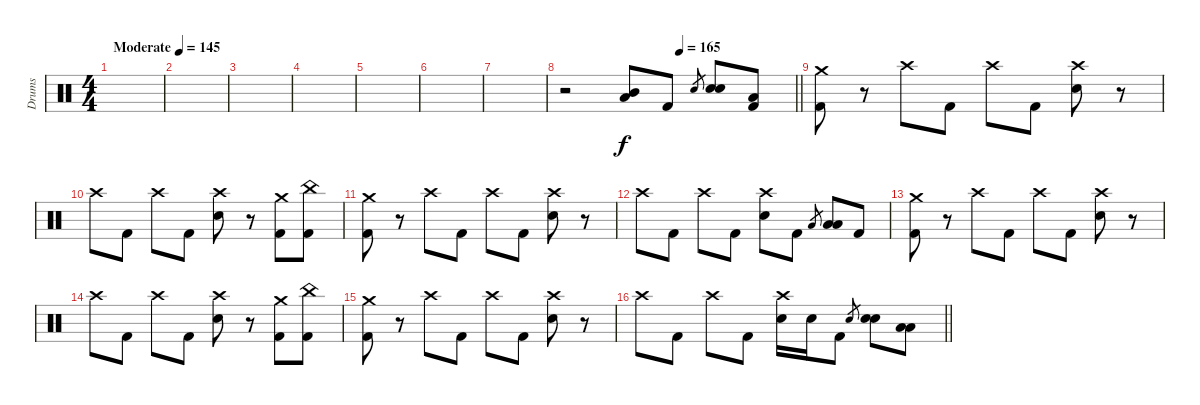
\track ("Drums" "Drums") {instrument percussion}
\staff {score}
\articulation defaults
\ts (4 4)
\tempo (145 "Moderate")
\clef neutral
\ks c
|
|
|
|
|
|
|
\tempo (165 0.5)
\barLineRight lightlight
r.2 ("Mid Tom (hit)" "Low Tom (hit)").8 "Kick (hit) 2".8 "Electric Snare (hit)".8{gr} ("Electric Snare (hit)" "Electric Snare (hit)").8 ("Low Floor Tom (hit)" "Kick (hit) 2").8 |
\section ("" "")
("Crash medium (hit)" "Kick (hit) 2").8 r.8 "Crash high (hit)".8 "Kick (hit) 2".8 "Crash high (hit)".8 "Kick (hit) 2".8 ("Crash high (hit)" "Electric Snare (hit)").8 r.8 |
"Crash high (hit)".8 "Kick (hit) 2".8 "Crash high (hit)".8 "Kick (hit) 2".8 ("Crash high (hit)" "Electric Snare (hit)").8 r.8 ("Crash medium (hit)" "Kick (hit) 2").8 ("China (hit)" "Kick (hit) 2").8 |
("Crash medium (hit)" "Kick (hit) 2").8 r.8 "Crash high (hit)".8 "Kick (hit) 2".8 "Crash high (hit)".8 "Kick (hit) 2".8 ("Crash high (hit)" "Electric Snare (hit)").8 r.8 |
"Crash high (hit)".8 "Kick (hit) 2".8 "Crash high (hit)".8 "Kick (hit) 2".8 ("Crash high (hit)" "Electric Snare (hit)").8 "Kick (hit) 2".8 "Low Tom (hit)".8{gr} ("Low Tom (hit)" "Low Floor Tom (hit)").8 "Kick (hit) 2".8 |
("Crash medium (hit)" "Kick (hit) 2").8 r.8 "Crash high (hit)".8 "Kick (hit) 2".8 "Crash high (hit)".8 "Kick (hit) 2".8 ("Crash high (hit)" "Electric Snare (hit)").8 r.8 |
"Crash high (hit)".8 "Kick (hit) 2".8 "Crash high (hit)".8 "Kick (hit) 2".8 ("Crash high (hit)" "Electric Snare (hit)").8 r.8 ("Crash medium (hit)" "Kick (hit) 2").8 ("China (hit)" "Kick (hit) 2").8 |
("Crash medium (hit)" "Kick (hit) 2").8 r.8 "Crash high (hit)".8 "Kick (hit) 2".8 "Crash high (hit)".8 "Kick (hit) 2".8 ("Crash high (hit)" "Electric Snare (hit)").8 r.8 |
\barLineRight lightlight "Crash high (hit)".8 "Kick (hit) 2".8 "Crash high (hit)".8 "Kick (hit) 2".8
("Crash high (hit)" "Electric Snare (hit)").16 "Electric Snare (hit)".16 "Kick (hit) 2".8 "Electric Snare (hit)".8{gr} ("Electric Snare (hit)" "Electric Snare (hit)").8 ("Low Tom (hit)" "Low Floor Tom (hit)").8
